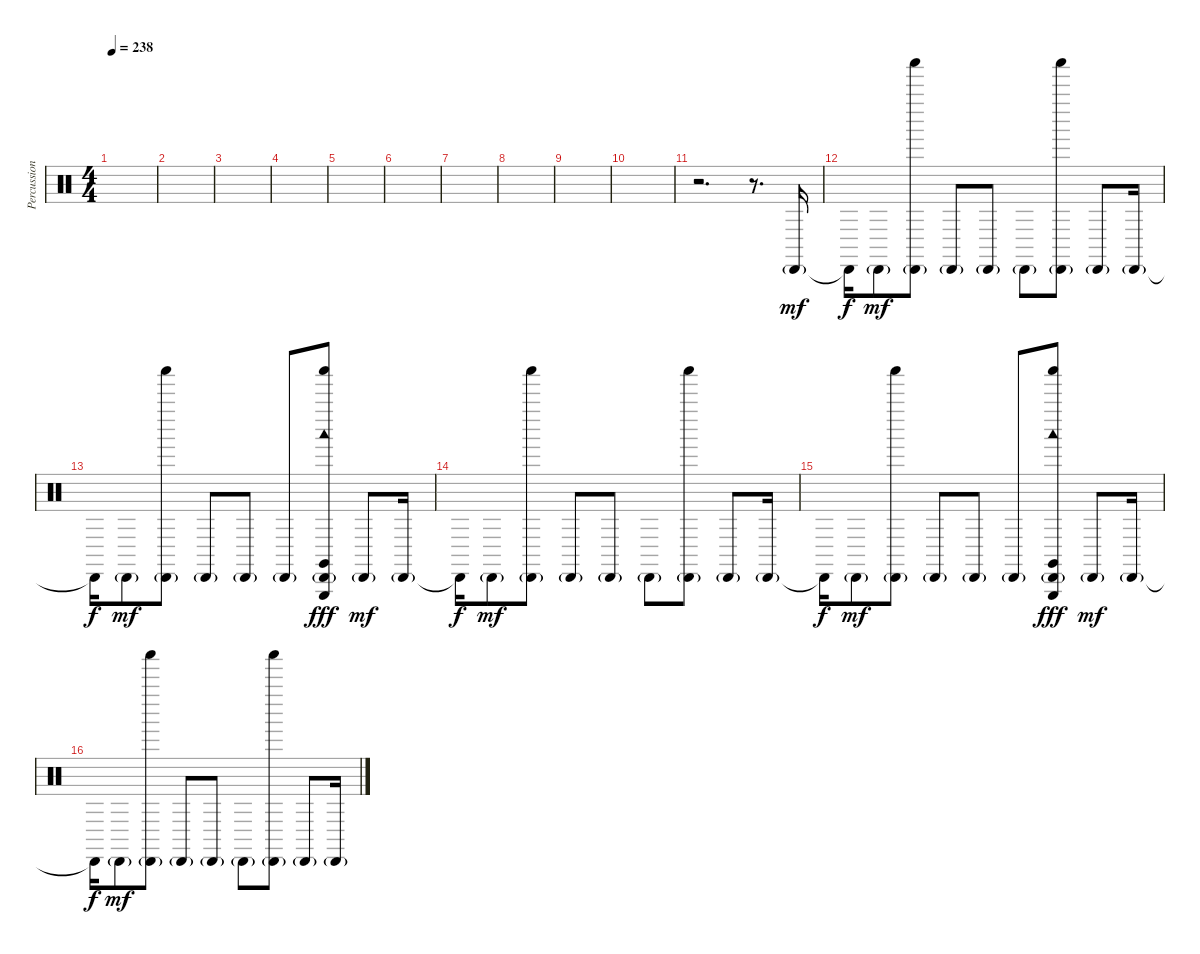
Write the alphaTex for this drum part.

\track ("Percussion" "Percussion") {instrument percussion}
\staff {score}
\articulation defaults
\ts (4 4)
\tempo 238
\clef neutral
\ks c
|
|
|
|
|
|
|
|
|
|
r.2{d} r.8{d} "Cabasa (hit)"{g}.16{dy mf} |
"Cabasa (hit)"{t}.16{dy f} "Cabasa (hit)"{g}.8{dy mf} ("Shaker (hit)" "Cabasa (hit)"{g}).8 "Cabasa (hit)"{g}.8 "Cabasa (hit)"{g}.8 "Cabasa (hit)"{g}.8 ("Shaker (hit)" "Cabasa (hit)"{g}).8 "Cabasa (hit)"{g}.8 "Cabasa (hit)"{g}.16 |
"Cabasa (hit)"{t}.16{dy f} "Cabasa (hit)"{g}.8{dy mf} ("Shaker (hit)" "Cabasa (hit)"{g}).8 "Cabasa (hit)"{g}.8 "Cabasa (hit)"{g}.8 "Cabasa (hit)"{g}.8 ("Shaker (hit)" "Cabasa (hit)"{g} "Claves (hit)" "Woodblock low (hit)" "Triangle (hit)").8{dy fff} "Cabasa (hit)"{g}.8{dy mf} "Cabasa (hit)"{g}.16 |
"Cabasa (hit)"{t}.16{dy f} "Cabasa (hit)"{g}.8{dy mf} ("Shaker (hit)" "Cabasa (hit)"{g}).8 "Cabasa (hit)"{g}.8 "Cabasa (hit)"{g}.8 "Cabasa (hit)"{g}.8 ("Shaker (hit)" "Cabasa (hit)"{g}).8 "Cabasa (hit)"{g}.8 "Cabasa (hit)"{g}.16 |
"Cabasa (hit)"{t}.16{dy f} "Cabasa (hit)"{g}.8{dy mf} ("Shaker (hit)" "Cabasa (hit)"{g}).8 "Cabasa (hit)"{g}.8 "Cabasa (hit)"{g}.8 "Cabasa (hit)"{g}.8 ("Shaker (hit)" "Cabasa (hit)"{g} "Claves (hit)" "Woodblock low (hit)" "Triangle (hit)").8{dy fff} "Cabasa (hit)"{g}.8{dy mf} "Cabasa (hit)"{g}.16 |
"Cabasa (hit)"{t}.16{dy f} "Cabasa (hit)"{g}.8{dy mf} ("Shaker (hit)" "Cabasa (hit)"{g}).8 "Cabasa (hit)"{g}.8 "Cabasa (hit)"{g}.8 "Cabasa (hit)"{g}.8 ("Shaker (hit)" "Cabasa (hit)"{g}).8 "Cabasa (hit)"{g}.8 "Cabasa (hit)"{g}.16
